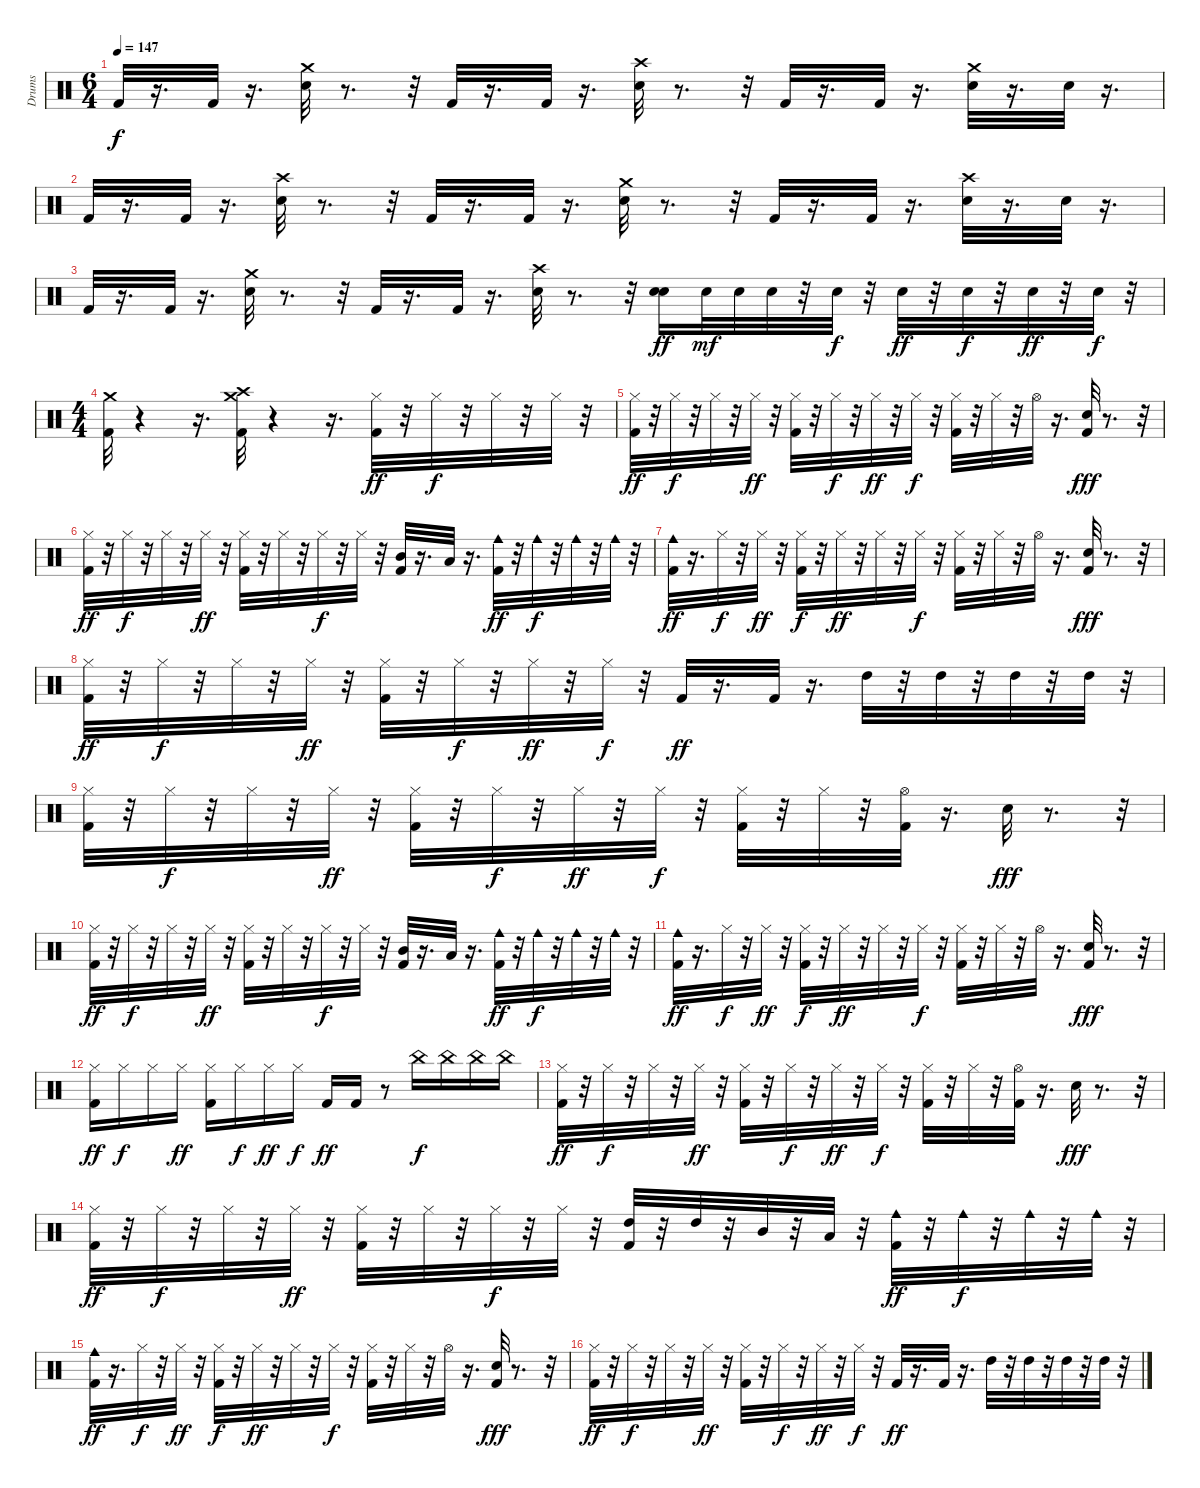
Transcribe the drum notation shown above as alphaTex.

\track ("Drums" "Drums") {instrument percussion}
\staff {score}
\articulation defaults
\ts (6 4)
\tempo 147
\clef neutral
\ks c "Kick (hit) 2".32{dy f}
r.16{d} "Kick (hit) 2".32 r.16{d} ("Crash medium (hit)" "Snare (hit) 2").32 r.8{d} r.32 "Kick (hit) 2".32 r.16{d} "Kick (hit) 2".32 r.16{d} ("Crash high (hit)" "Snare (hit) 2").32 r.8{d} r.32 "Kick (hit) 2".32 r.16{d} "Kick (hit) 2".32 r.16{d} ("Crash medium (hit)" "Snare (hit) 2").32 r.16{d} "Snare (hit) 2".32 r.16{d} |
"Kick (hit) 2".32 r.16{d} "Kick (hit) 2".32 r.16{d} ("Crash high (hit)" "Snare (hit) 2").32 r.8{d} r.32 "Kick (hit) 2".32 r.16{d} "Kick (hit) 2".32 r.16{d} ("Crash medium (hit)" "Snare (hit) 2").32 r.8{d} r.32 "Kick (hit) 2".32 r.16{d} "Kick (hit) 2".32 r.16{d} ("Crash high (hit)" "Snare (hit) 2").32 r.16{d} "Snare (hit) 2".32 r.16{d} |
"Kick (hit) 2".32 r.16{d} "Kick (hit) 2".32 r.16{d} ("Crash medium (hit)" "Snare (hit) 2").32 r.8{d} r.32 "Kick (hit) 2".32 r.16{d} "Kick (hit) 2".32 r.16{d} ("Crash high (hit)" "Snare (hit) 2").32 r.8{d} r.32 ("Snare (hit) 2" "Snare (hit) 2").16{dy ff} "Snare (hit) 2".32{dy mf} "Snare (hit) 2".32 "Snare (hit) 2".32 r.32 "Snare (hit) 2".32{dy f} r.32 "Snare (hit) 2".32{dy ff} r.32 "Snare (hit) 2".32{dy f} r.32 "Snare (hit) 2".32{dy ff} r.32 "Snare (hit) 2".32{dy f} r.32 |
\ts (4 4)
("Crash medium (hit)" "Kick (hit) 2").32 r.4 r.16{d} ("Crash medium (hit)" "Crash high (hit)" "Kick (hit) 2").32 r.4 r.16{d} ("Hi-Hat (closed)" "Kick (hit) 2").32{dy ff} r.32 "Hi-Hat (closed)".32{dy f} r.32 "Hi-Hat (closed)".32 r.32 "Hi-Hat (closed)".32 r.32 |
("Hi-Hat (closed)" "Kick (hit) 2").32{dy ff} r.32 "Hi-Hat (closed)".32{dy f} r.32 "Hi-Hat (closed)".32 r.32 "Hi-Hat (closed)".32{dy ff} r.32 ("Hi-Hat (closed)" "Kick (hit) 2").32 r.32 "Hi-Hat (closed)".32{dy f} r.32 "Hi-Hat (closed)".32{dy ff} r.32 "Hi-Hat (closed)".32{dy f} r.32 ("Hi-Hat (closed)" "Kick (hit) 2").32 r.32 "Hi-Hat (closed)".32 r.32 "Hi-Hat (open)".32 r.16{d} ("Snare (hit) 2" "Kick (hit) 2").32{dy fff} r.8{d} r.32 |
("Hi-Hat (closed)" "Kick (hit) 2").32{dy ff} r.32 "Hi-Hat (closed)".32{dy f} r.32 "Hi-Hat (closed)".32 r.32 "Hi-Hat (closed)".32{dy ff} r.32 ("Hi-Hat (closed)" "Kick (hit) 2").32 r.32 "Hi-Hat (closed)".32 r.32 "Hi-Hat (closed)".32{dy f} r.32 "Hi-Hat (closed)".32 r.32 ("Mid Tom (hit)" "Kick (hit) 2").32 r.16{d} "Low Tom (hit)".32 r.16{d} ("Cowbell medium (hit)" "Kick (hit) 2").32{dy ff} r.32 "Cowbell medium (hit)".32{dy f} r.32 "Cowbell medium (hit)".32 r.32 "Cowbell medium (hit)".32 r.32 |
("Kick (hit) 2" "Cowbell medium (hit)").32{dy ff} r.16{d} "Hi-Hat (closed)".32{dy f} r.32 "Hi-Hat (closed)".32{dy ff} r.32 ("Kick (hit) 2" "Hi-Hat (closed)").32{dy f} r.32 "Hi-Hat (closed)".32{dy ff} r.32 "Hi-Hat (closed)".32 r.32 "Hi-Hat (closed)".32{dy f} r.32 ("Kick (hit) 2" "Hi-Hat (closed)").32 r.32 "Hi-Hat (closed)".32 r.32 "Hi-Hat (open)".32 r.16{d} ("Kick (hit) 2" "Snare (hit) 2").32{dy fff} r.8{d} r.32 |
("Kick (hit) 2" "Hi-Hat (closed)").32{dy ff} r.32 "Hi-Hat (closed)".32{dy f} r.32 "Hi-Hat (closed)".32 r.32 "Hi-Hat (closed)".32{dy ff} r.32 ("Kick (hit) 2" "Hi-Hat (closed)").32 r.32 "Hi-Hat (closed)".32{dy f} r.32 "Hi-Hat (closed)".32{dy ff} r.32 "Hi-Hat (closed)".32{dy f} r.32 "Kick (hit) 2".32{dy ff} r.16{d} "Kick (hit) 2".32 r.16{d} "High Tom (hit)".32 r.32 "High Tom (hit)".32 r.32 "High Tom (hit)".32 r.32 "High Tom (hit)".32 r.32 |
("Kick (hit) 2" "Hi-Hat (closed)").32 r.32 "Hi-Hat (closed)".32{dy f} r.32 "Hi-Hat (closed)".32 r.32 "Hi-Hat (closed)".32{dy ff} r.32 ("Kick (hit) 2" "Hi-Hat (closed)").32 r.32 "Hi-Hat (closed)".32{dy f} r.32 "Hi-Hat (closed)".32{dy ff} r.32 "Hi-Hat (closed)".32{dy f} r.32 ("Kick (hit) 2" "Hi-Hat (closed)").32 r.32 "Hi-Hat (closed)".32 r.32 ("Hi-Hat (open)" "Kick (hit) 2").32 r.16{d} "Snare (hit) 2".32{dy fff} r.8{d} r.32 |
("Hi-Hat (closed)" "Kick (hit) 2").32{dy ff} r.32 "Hi-Hat (closed)".32{dy f} r.32 "Hi-Hat (closed)".32 r.32 "Hi-Hat (closed)".32{dy ff} r.32 ("Hi-Hat (closed)" "Kick (hit) 2").32 r.32 "Hi-Hat (closed)".32 r.32 "Hi-Hat (closed)".32{dy f} r.32 "Hi-Hat (closed)".32 r.32 ("Mid Tom (hit)" "Kick (hit) 2").32 r.16{d} "Low Tom (hit)".32 r.16{d} ("Cowbell medium (hit)" "Kick (hit) 2").32{dy ff} r.32 "Cowbell medium (hit)".32{dy f} r.32 "Cowbell medium (hit)".32 r.32 "Cowbell medium (hit)".32 r.32 |
("Kick (hit) 2" "Cowbell medium (hit)").32{dy ff} r.16{d} "Hi-Hat (closed)".32{dy f} r.32 "Hi-Hat (closed)".32{dy ff} r.32 ("Kick (hit) 2" "Hi-Hat (closed)").32{dy f} r.32 "Hi-Hat (closed)".32{dy ff} r.32 "Hi-Hat (closed)".32 r.32 "Hi-Hat (closed)".32{dy f} r.32 ("Kick (hit) 2" "Hi-Hat (closed)").32 r.32 "Hi-Hat (closed)".32 r.32 "Hi-Hat (open)".32 r.16{d} ("Kick (hit) 2" "Snare (hit) 2").32{dy fff} r.8{d} r.32 |
("Kick (hit) 2" "Hi-Hat (closed)").16{dy ff} "Hi-Hat (closed)".16{dy f} "Hi-Hat (closed)".16 "Hi-Hat (closed)".16{dy ff} ("Kick (hit) 2" "Hi-Hat (closed)").16 "Hi-Hat (closed)".16{dy f} "Hi-Hat (closed)".16{dy ff} "Hi-Hat (closed)".16{dy f} "Kick (hit) 2".16{dy ff} "Kick (hit) 2".16 r.8 "China (hit)".16{dy f} "China (hit)".16 "China (hit)".16 "China (hit)".16 |
("Kick (hit) 2" "Hi-Hat (closed)").32{dy ff} r.32 "Hi-Hat (closed)".32{dy f} r.32 "Hi-Hat (closed)".32 r.32 "Hi-Hat (closed)".32{dy ff} r.32 ("Kick (hit) 2" "Hi-Hat (closed)").32 r.32 "Hi-Hat (closed)".32{dy f} r.32 "Hi-Hat (closed)".32{dy ff} r.32 "Hi-Hat (closed)".32{dy f} r.32 ("Kick (hit) 2" "Hi-Hat (closed)").32 r.32 "Hi-Hat (closed)".32 r.32 ("Hi-Hat (open)" "Kick (hit) 2").32 r.16{d} "Snare (hit) 2".32{dy fff} r.8{d} r.32 |
("Hi-Hat (closed)" "Kick (hit) 2").32{dy ff} r.32 "Hi-Hat (closed)".32{dy f} r.32 "Hi-Hat (closed)".32 r.32 "Hi-Hat (closed)".32{dy ff} r.32 ("Hi-Hat (closed)" "Kick (hit) 2").32 r.32 "Hi-Hat (closed)".32 r.32 "Hi-Hat (closed)".32{dy f} r.32 "Hi-Hat (closed)".32 r.32 ("High Tom (hit)" "Kick (hit) 2").32 r.32 "High Tom (hit)".32 r.32 "Mid Tom (hit)".32 r.32 "Low Tom (hit)".32 r.32 ("Cowbell medium (hit)" "Kick (hit) 2").32{dy ff} r.32 "Cowbell medium (hit)".32{dy f} r.32 "Cowbell medium (hit)".32 r.32 "Cowbell medium (hit)".32 r.32 |
("Cowbell medium (hit)" "Kick (hit) 2").32{dy ff} r.16{d} "Hi-Hat (closed)".32{dy f} r.32 "Hi-Hat (closed)".32{dy ff} r.32 ("Kick (hit) 2" "Hi-Hat (closed)").32{dy f} r.32 "Hi-Hat (closed)".32{dy ff} r.32 "Hi-Hat (closed)".32 r.32 "Hi-Hat (closed)".32{dy f} r.32 ("Kick (hit) 2" "Hi-Hat (closed)").32 r.32 "Hi-Hat (closed)".32 r.32 "Hi-Hat (open)".32 r.16{d} ("Kick (hit) 2" "Snare (hit) 2").32{dy fff} r.8{d} r.32 |
("Kick (hit) 2" "Hi-Hat (closed)").32{dy ff} r.32 "Hi-Hat (closed)".32{dy f} r.32 "Hi-Hat (closed)".32 r.32 "Hi-Hat (closed)".32{dy ff} r.32 ("Kick (hit) 2" "Hi-Hat (closed)").32 r.32 "Hi-Hat (closed)".32{dy f} r.32 "Hi-Hat (closed)".32{dy ff} r.32 "Hi-Hat (closed)".32{dy f} r.32 "Kick (hit) 2".32{dy ff} r.16{d} "Kick (hit) 2".32 r.16{d} "High Tom (hit)".32 r.32 "High Tom (hit)".32 r.32 "High Tom (hit)".32 r.32 "High Tom (hit)".32 r.32
